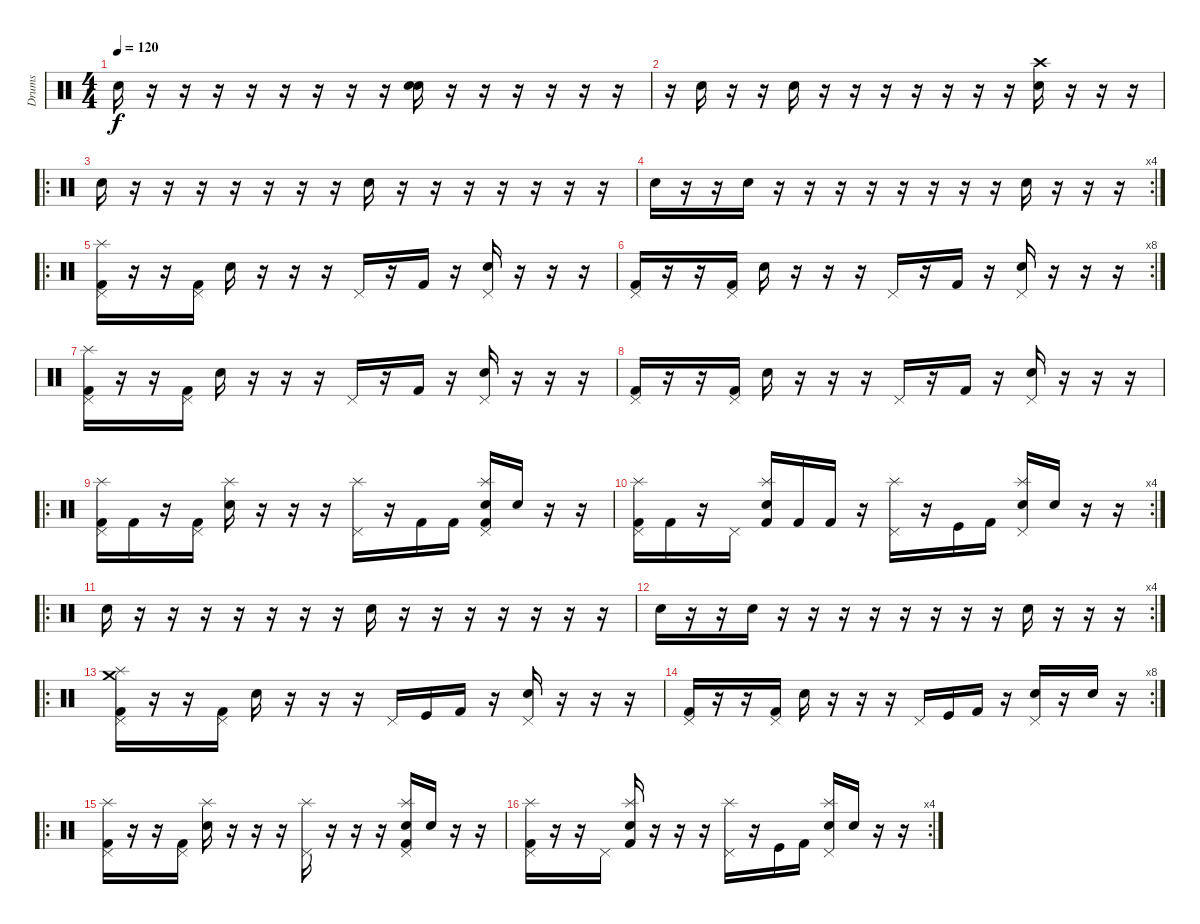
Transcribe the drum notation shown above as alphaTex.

\track ("Drums" "Drums") {instrument percussion}
\staff {score}
\articulation defaults
\ts (4 4)
\tempo 120
\clef neutral
\ks c "Snare (hit) 2".16{dy f}
r.16 r.16 r.16 r.16 r.16 r.16 r.16 r.16 ("Snare (hit) 2" "Snare (hit) 2").16 r.16 r.16 r.16 r.16 r.16 r.16 |
r.16 "Snare (hit) 2".16 r.16 r.16 "Snare (hit) 2".16 r.16 r.16 r.16 r.16 r.16 r.16 r.16 ("Crash high (hit)" "Snare (hit) 2").16 r.16 r.16 r.16 |
\ro "Snare (hit) 2".16
r.16 r.16 r.16 r.16 r.16 r.16 r.16 "Snare (hit) 2".16 r.16 r.16 r.16 r.16 r.16 r.16 r.16 |
\rc 4 "Snare (hit) 2".16
r.16 r.16 "Snare (hit) 2".16 r.16 r.16 r.16 r.16 r.16 r.16 r.16 r.16 "Snare (hit) 2".16 r.16 r.16 r.16 |
\ro
("Splash (hit)" "Pedal Hi-Hat (hit)" "Kick (hit) 2").16 r.16 r.16 ("Pedal Hi-Hat (hit)" "Kick (hit) 2").16 "Snare (hit) 2".16 r.16 r.16 r.16 "Pedal Hi-Hat (hit)".16 r.16 "Kick (hit) 2".16 r.16 ("Pedal Hi-Hat (hit)" "Snare (hit) 2").16 r.16 r.16 r.16 |
\rc 8
("Pedal Hi-Hat (hit)" "Kick (hit) 2").16 r.16 r.16 ("Pedal Hi-Hat (hit)" "Kick (hit) 2").16 "Snare (hit) 2".16 r.16 r.16 r.16 "Pedal Hi-Hat (hit)".16 r.16 "Kick (hit) 2".16 r.16 ("Pedal Hi-Hat (hit)" "Snare (hit) 2").16 r.16 r.16 r.16 |
("Splash (hit)" "Pedal Hi-Hat (hit)" "Kick (hit) 2").16 r.16 r.16 ("Pedal Hi-Hat (hit)" "Kick (hit) 2").16 "Snare (hit) 2".16 r.16 r.16 r.16 "Pedal Hi-Hat (hit)".16 r.16 "Kick (hit) 2".16 r.16 ("Pedal Hi-Hat (hit)" "Snare (hit) 2").16 r.16 r.16 r.16 |
("Pedal Hi-Hat (hit)" "Kick (hit) 2").16 r.16 r.16 ("Pedal Hi-Hat (hit)" "Kick (hit) 2").16 "Snare (hit) 2".16 r.16 r.16 r.16 "Pedal Hi-Hat (hit)".16 r.16 "Kick (hit) 2".16 r.16 ("Pedal Hi-Hat (hit)" "Snare (hit) 2").16 r.16 r.16 r.16 |
\ro
("Splash (hit)" "Pedal Hi-Hat (hit)" "Kick (hit) 2").16 "Kick (hit) 2".16 r.16 ("Pedal Hi-Hat (hit)" "Kick (hit) 2").16 ("Snare (hit) 2" "Splash (hit)").16 r.16 r.16 r.16 ("Pedal Hi-Hat (hit)" "Splash (hit)").16 r.16 "Kick (hit) 2".16 "Kick (hit) 2".16 ("Pedal Hi-Hat (hit)" "Snare (hit) 2" "Kick (hit) 2" "Splash (hit)").16 "Snare (hit) 2".16 r.16 r.16 |
\rc 4
("Splash (hit)" "Pedal Hi-Hat (hit)" "Kick (hit) 2").16 "Kick (hit) 2".16 r.16 "Pedal Hi-Hat (hit)".16 ("Snare (hit) 2" "Kick (hit) 2" "Splash (hit)").16 "Kick (hit) 2".16 "Kick (hit) 2".16 r.16 ("Pedal Hi-Hat (hit)" "Splash (hit)").16 r.16 "Kick (hit)".16 "Kick (hit) 2".16 ("Pedal Hi-Hat (hit)" "Snare (hit) 2" "Splash (hit)").16 "Snare (hit) 2".16 r.16 r.16 |
\ro "Snare (hit) 2".16
r.16 r.16 r.16 r.16 r.16 r.16 r.16 "Snare (hit) 2".16 r.16 r.16 r.16 r.16 r.16 r.16 r.16 |
\rc 4 "Snare (hit) 2".16
r.16 r.16 "Snare (hit) 2".16 r.16 r.16 r.16 r.16 r.16 r.16 r.16 r.16 "Snare (hit) 2".16 r.16 r.16 r.16 |
\ro
("Splash (hit)" "Pedal Hi-Hat (hit)" "Kick (hit) 2" "Crash medium (hit)").16 r.16 r.16 ("Pedal Hi-Hat (hit)" "Kick (hit) 2").16 "Snare (hit) 2".16 r.16 r.16 r.16 "Pedal Hi-Hat (hit)".16 "Kick (hit)".16 "Kick (hit) 2".16 r.16 ("Pedal Hi-Hat (hit)" "Snare (hit) 2").16 r.16 r.16 r.16 |
\rc 8
("Pedal Hi-Hat (hit)" "Kick (hit) 2").16 r.16 r.16 ("Pedal Hi-Hat (hit)" "Kick (hit) 2").16 "Snare (hit) 2".16 r.16 r.16 r.16 "Pedal Hi-Hat (hit)".16 "Kick (hit)".16 "Kick (hit) 2".16 r.16 ("Pedal Hi-Hat (hit)" "Snare (hit) 2").16 r.16 "Snare (hit) 2".16 r.16 |
\ro
("Splash (hit)" "Pedal Hi-Hat (hit)" "Kick (hit) 2").16 r.16 r.16 ("Pedal Hi-Hat (hit)" "Kick (hit) 2").16 ("Snare (hit) 2" "Splash (hit)").16 r.16 r.16 r.16 ("Pedal Hi-Hat (hit)" "Splash (hit)").16 r.16 r.16 r.16 ("Pedal Hi-Hat (hit)" "Snare (hit) 2" "Kick (hit) 2" "Splash (hit)").16 "Snare (hit) 2".16 r.16 r.16 |
\rc 4
("Splash (hit)" "Pedal Hi-Hat (hit)" "Kick (hit) 2").16 r.16 r.16 "Pedal Hi-Hat (hit)".16 ("Snare (hit) 2" "Kick (hit) 2" "Splash (hit)").16 r.16 r.16 r.16 ("Pedal Hi-Hat (hit)" "Splash (hit)").16 r.16 "Kick (hit)".16 "Kick (hit) 2".16 ("Pedal Hi-Hat (hit)" "Snare (hit) 2" "Splash (hit)").16 "Snare (hit) 2".16 r.16 r.16
